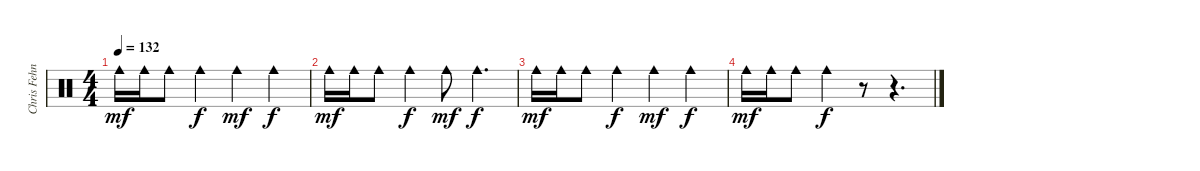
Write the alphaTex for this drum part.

\track ("Chris Fehn" "Chris Fehn") {instrument percussion}
\staff {score}
\articulation defaults
\ts (4 4)
\tempo 132
\clef neutral
\ks c "Cowbell medium (hit)".16{dy mf} "Cowbell medium (hit)".16 "Cowbell medium (hit)".8 "Cowbell medium (hit)".4{dy f} "Cowbell medium (hit)".4{dy mf} "Cowbell medium (hit)".4{dy f}
|
"Cowbell medium (hit)".16{dy mf} "Cowbell medium (hit)".16 "Cowbell medium (hit)".8 "Cowbell medium (hit)".4{dy f} "Cowbell medium (hit)".8{dy mf} "Cowbell medium (hit)".4{d dy f} |
"Cowbell medium (hit)".16{dy mf} "Cowbell medium (hit)".16 "Cowbell medium (hit)".8 "Cowbell medium (hit)".4{dy f} "Cowbell medium (hit)".4{dy mf} "Cowbell medium (hit)".4{dy f} |
"Cowbell medium (hit)".16{dy mf} "Cowbell medium (hit)".16 "Cowbell medium (hit)".8 "Cowbell medium (hit)".4{dy f} r.8 r.4{d}
